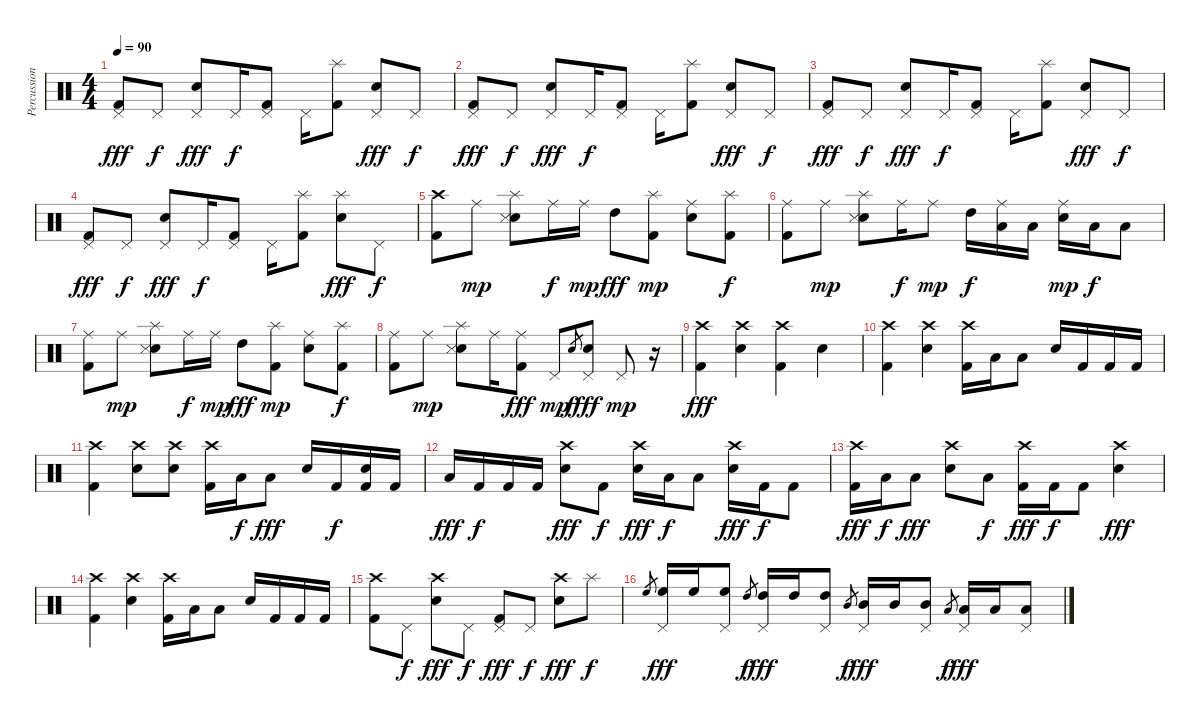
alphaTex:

\track ("Percussion" "Percussion") {instrument percussion}
\staff {score}
\articulation defaults
\ts (4 4)
\tempo 90
\clef neutral
\ks c
("Kick (hit) 2" "Pedal Hi-Hat (hit)").8{dy fff} "Pedal Hi-Hat (hit)".8{dy f} ("Electric Snare (hit)" "Pedal Hi-Hat (hit)").8{dy fff} "Pedal Hi-Hat (hit)".16{dy f} ("Kick (hit) 2" "Pedal Hi-Hat (hit)").8 "Pedal Hi-Hat (hit)".16 ("Kick (hit) 2" "Splash (hit)").8 ("Electric Snare (hit)" "Pedal Hi-Hat (hit)").8{dy fff} "Pedal Hi-Hat (hit)".8{dy f} |
("Kick (hit) 2" "Pedal Hi-Hat (hit)").8{dy fff} "Pedal Hi-Hat (hit)".8{dy f} ("Electric Snare (hit)" "Pedal Hi-Hat (hit)").8{dy fff} "Pedal Hi-Hat (hit)".16{dy f} ("Kick (hit) 2" "Pedal Hi-Hat (hit)").8 "Pedal Hi-Hat (hit)".16 ("Kick (hit) 2" "Splash (hit)").8 ("Electric Snare (hit)" "Pedal Hi-Hat (hit)").8{dy fff} "Pedal Hi-Hat (hit)".8{dy f} |
("Kick (hit) 2" "Pedal Hi-Hat (hit)").8{dy fff} "Pedal Hi-Hat (hit)".8{dy f} ("Electric Snare (hit)" "Pedal Hi-Hat (hit)").8{dy fff} "Pedal Hi-Hat (hit)".16{dy f} ("Kick (hit) 2" "Pedal Hi-Hat (hit)").8 "Pedal Hi-Hat (hit)".16 ("Kick (hit) 2" "Splash (hit)").8 ("Electric Snare (hit)" "Pedal Hi-Hat (hit)").8{dy fff} "Pedal Hi-Hat (hit)".8{dy f} |
("Kick (hit) 2" "Pedal Hi-Hat (hit)").8{dy fff} "Pedal Hi-Hat (hit)".8{dy f} ("Electric Snare (hit)" "Pedal Hi-Hat (hit)").8{dy fff} "Pedal Hi-Hat (hit)".16{dy f} ("Kick (hit) 2" "Pedal Hi-Hat (hit)").8 "Pedal Hi-Hat (hit)".16 ("Kick (hit) 2" "Splash (hit)").8 ("Electric Snare (hit)" "Splash (hit)").8{dy fff} "Pedal Hi-Hat (hit)".8{dy f} |
("Kick (hit) 2" "Crash high (hit)").8 "Ride (middle)".8{dy mp} ("Electric Snare (hit)" "Snare (side stick) 3" "Splash (hit)").8 "Ride (middle)".16{dy f} "Ride (middle)".16{dy mp} "High Tom (hit)".8{dy fff} ("Kick (hit) 2" "Splash (hit)").8{dy mp} ("Electric Snare (hit)" "Ride (middle)").8 ("Kick (hit) 2" "Splash (hit)").8{dy f} |
("Kick (hit) 2" "Ride (middle)").8 "Ride (middle)".8{dy mp} ("Electric Snare (hit)" "Snare (side stick) 3" "Splash (hit)").8 "Ride (middle)".16{dy f} "Ride (middle)".8{dy mp} "High Tom (hit)".16{dy f} ("Low Tom (hit)" "Ride (middle)").16 "Low Tom (hit)".16 ("Electric Snare (hit)" "Ride (middle)").16{dy mp} "Low Tom (hit)".16{dy f} "Low Tom (hit)".8 |
("Kick (hit) 2" "Ride (middle)").8 "Ride (middle)".8{dy mp} ("Electric Snare (hit)" "Snare (side stick) 3" "Splash (hit)").8 "Ride (middle)".16{dy f} "Ride (middle)".16{dy mp} "High Tom (hit)".8{dy fff} ("Kick (hit) 2" "Splash (hit)").8{dy mp} ("Electric Snare (hit)" "Ride (middle)").8 ("Kick (hit) 2" "Splash (hit)").8{dy f} |
("Kick (hit) 2" "Ride (middle)").8 "Ride (middle)".8{dy mp} ("Electric Snare (hit)" "Snare (side stick) 3" "Splash (hit)").8 "Ride (middle)".16 ("Kick (hit) 2" "Ride (middle)").8{dy fff} "Pedal Hi-Hat (hit)".8{dy mp} "Electric Snare (hit)".8{gr dy f} ("Electric Snare (hit)" "Pedal Hi-Hat (hit)").8{dy fff} "Pedal Hi-Hat (hit)".8{dy mp} r.16 |
("Kick (hit) 2" "Crash high (hit)").4{dy fff} ("Electric Snare (hit)" "Crash high (hit)").4 ("Kick (hit) 2" "Crash high (hit)").4 "Electric Snare (hit)".4 |
("Kick (hit) 2" "Crash high (hit)").4 ("Electric Snare (hit)" "Crash high (hit)").4 ("Kick (hit) 2" "Crash high (hit)").16 "Low Tom (hit)".16 "Low Tom (hit)".8 "Electric Snare (hit)".16 "Kick (hit) 2".16 "Kick (hit) 2".16 "Kick (hit) 2".16 |
("Kick (hit) 2" "Crash high (hit)").4 ("Electric Snare (hit)" "Crash high (hit)").8 ("Electric Snare (hit)" "Crash high (hit)").8 ("Kick (hit) 2" "Crash high (hit)").16 "Low Tom (hit)".16{dy f} "Low Tom (hit)".8{dy fff} "Electric Snare (hit)".16 "Kick (hit) 2".16{dy f} ("Electric Snare (hit)" "Kick (hit) 2").16 "Kick (hit) 2".16 |
"Low Tom (hit)".16{dy fff} "Kick (hit) 2".16{dy f} "Kick (hit) 2".16 "Kick (hit) 2".16 ("Electric Snare (hit)" "Crash high (hit)").8{dy fff} "Kick (hit) 2".8{dy f} ("Electric Snare (hit)" "Crash high (hit)").16{dy fff} "Low Tom (hit)".16{dy f} "Low Tom (hit)".8 ("Electric Snare (hit)" "Crash high (hit)").16{dy fff} "Kick (hit) 2".16{dy f} "Kick (hit) 2".8 |
("Kick (hit) 2" "Crash high (hit)").16{dy fff} "Low Tom (hit)".16{dy f} "Low Tom (hit)".8{dy fff} ("Electric Snare (hit)" "Crash high (hit)").8 "Low Tom (hit)".8{dy f} ("Kick (hit) 2" "Crash high (hit)").16{dy fff} "Kick (hit) 2".16{dy f} "Kick (hit) 2".8 ("Electric Snare (hit)" "Crash high (hit)").4{dy fff} |
("Kick (hit) 2" "Crash high (hit)").4 ("Electric Snare (hit)" "Crash high (hit)").4 ("Kick (hit) 2" "Crash high (hit)").16 "Low Tom (hit)".16 "Low Tom (hit)".8 "Electric Snare (hit)".16 "Kick (hit) 2".16 "Kick (hit) 2".16 "Kick (hit) 2".16 |
("Kick (hit) 2" "Crash high (hit)").8 "Pedal Hi-Hat (hit)".8{dy f} ("Electric Snare (hit)" "Crash high (hit)").8{dy fff} "Pedal Hi-Hat (hit)".8{dy f} ("Kick (hit) 2" "Pedal Hi-Hat (hit)").8{dy fff} "Pedal Hi-Hat (hit)".8{dy f} ("Electric Snare (hit)" "Crash high (hit)").8{dy fff} "Splash (hit)".8{dy f} |
"High Floor Tom (hit)".8{gr} ("High Floor Tom (hit)" "Pedal Hi-Hat (hit)").16{dy fff} "High Floor Tom (hit)".16 ("High Floor Tom (hit)" "Pedal Hi-Hat (hit)").8 "High Tom (hit)".8{gr dy f} ("High Tom (hit)" "Pedal Hi-Hat (hit)").16{dy fff} "High Tom (hit)".16 ("High Tom (hit)" "Pedal Hi-Hat (hit)").8 "Mid Tom (hit)".8{gr dy f} ("Mid Tom (hit)" "Pedal Hi-Hat (hit)").16{dy fff} "Mid Tom (hit)".16 ("Mid Tom (hit)" "Pedal Hi-Hat (hit)").8 "Low Tom (hit)".8{gr dy f} ("Low Tom (hit)" "Pedal Hi-Hat (hit)").16{dy fff} "Low Tom (hit)".16 ("Low Tom (hit)" "Pedal Hi-Hat (hit)").8
